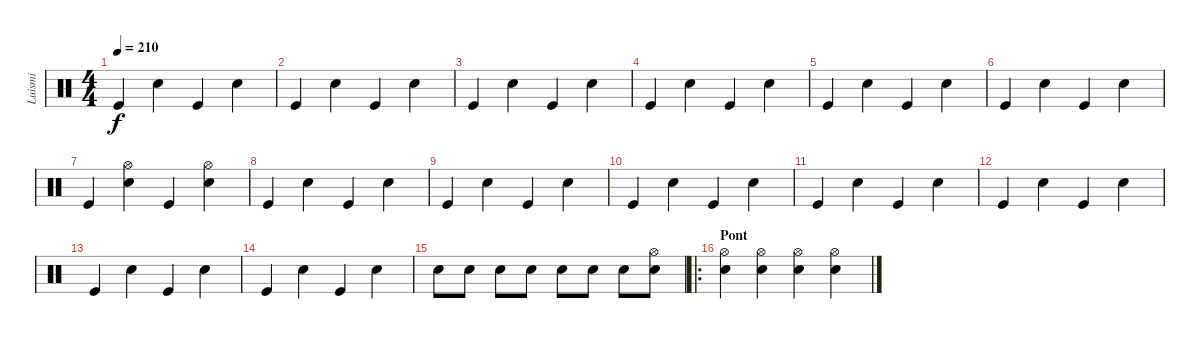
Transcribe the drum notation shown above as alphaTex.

\track ("Luismi" "Luismi") {instrument percussion}
\staff {score}
\articulation defaults
\ts (4 4)
\tempo 210
\clef neutral
\ks c "Kick (hit)".4{dy f} "Electric Snare (hit)".4 "Kick (hit)".4 "Electric Snare (hit)".4
|
"Kick (hit)".4 "Electric Snare (hit)".4 "Kick (hit)".4 "Electric Snare (hit)".4 |
"Kick (hit)".4 "Electric Snare (hit)".4 "Kick (hit)".4 "Electric Snare (hit)".4 |
"Kick (hit)".4 "Electric Snare (hit)".4 "Kick (hit)".4 "Electric Snare (hit)".4 |
"Kick (hit)".4 "Electric Snare (hit)".4 "Kick (hit)".4 "Electric Snare (hit)".4 |
"Kick (hit)".4 "Electric Snare (hit)".4 "Kick (hit)".4 "Electric Snare (hit)".4 |
"Kick (hit)".4 ("Electric Snare (hit)" "Hi-Hat (open)").4 "Kick (hit)".4 ("Electric Snare (hit)" "Hi-Hat (open)").4 |
"Kick (hit)".4 "Electric Snare (hit)".4 "Kick (hit)".4 "Electric Snare (hit)".4 |
"Kick (hit)".4 "Electric Snare (hit)".4 "Kick (hit)".4 "Electric Snare (hit)".4 |
"Kick (hit)".4 "Electric Snare (hit)".4 "Kick (hit)".4 "Electric Snare (hit)".4 |
"Kick (hit)".4 "Electric Snare (hit)".4 "Kick (hit)".4 "Electric Snare (hit)".4 |
"Kick (hit)".4 "Electric Snare (hit)".4 "Kick (hit)".4 "Electric Snare (hit)".4 |
"Kick (hit)".4 "Electric Snare (hit)".4 "Kick (hit)".4 "Electric Snare (hit)".4 |
"Kick (hit)".4 "Electric Snare (hit)".4 "Kick (hit)".4 "Electric Snare (hit)".4 |
"Electric Snare (hit)".8 "Electric Snare (hit)".8 "Electric Snare (hit)".8 "Electric Snare (hit)".8 "Electric Snare (hit)".8 "Electric Snare (hit)".8 "Electric Snare (hit)".8 ("Electric Snare (hit)" "Hi-Hat (open)").8 |
\ro
\section ("" "Pont")
("Snare (hit) 2" "Hi-Hat (open)").4 ("Snare (hit) 2" "Hi-Hat (open)").4 ("Snare (hit) 2" "Hi-Hat (open)").4 ("Snare (hit) 2" "Hi-Hat (open)").4
